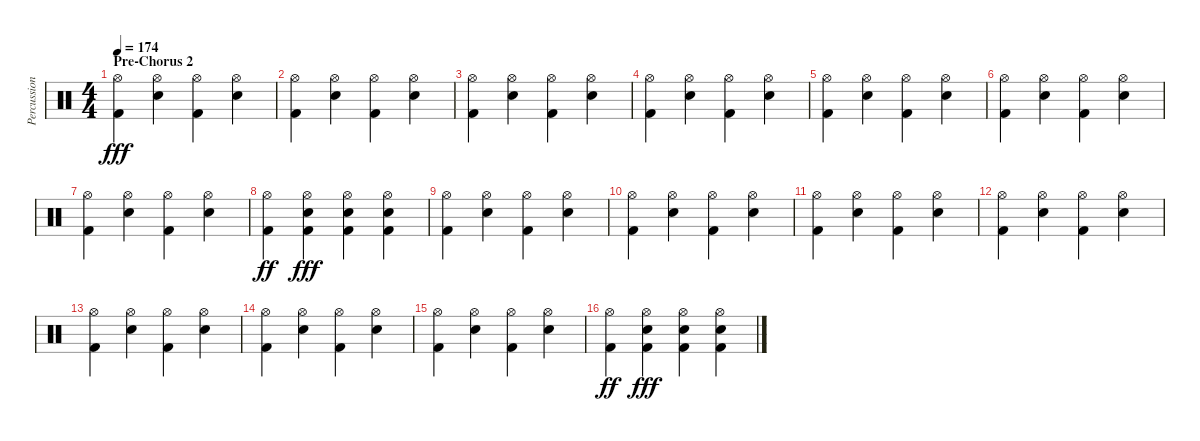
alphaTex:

\track ("Percussion" "Percussion") {instrument percussion}
\staff {score}
\articulation defaults
\ts (4 4)
\section ("" "Pre-Chorus 2")
\tempo 174
\clef neutral
\ks c
("Hi-Hat (open)" "Kick (hit) 2").4{dy fff} ("Hi-Hat (open)" "Electric Snare (hit)").4 ("Hi-Hat (open)" "Kick (hit) 2").4 ("Hi-Hat (open)" "Electric Snare (hit)").4 |
("Hi-Hat (open)" "Kick (hit) 2").4 ("Hi-Hat (open)" "Electric Snare (hit)").4 ("Hi-Hat (open)" "Kick (hit) 2").4 ("Hi-Hat (open)" "Electric Snare (hit)").4 |
("Hi-Hat (open)" "Kick (hit) 2").4 ("Hi-Hat (open)" "Electric Snare (hit)").4 ("Hi-Hat (open)" "Kick (hit) 2").4 ("Hi-Hat (open)" "Electric Snare (hit)").4 |
("Hi-Hat (open)" "Kick (hit) 2").4 ("Hi-Hat (open)" "Electric Snare (hit)").4 ("Hi-Hat (open)" "Kick (hit) 2").4 ("Hi-Hat (open)" "Electric Snare (hit)").4 |
("Hi-Hat (open)" "Kick (hit) 2").4 ("Hi-Hat (open)" "Electric Snare (hit)").4 ("Hi-Hat (open)" "Kick (hit) 2").4 ("Hi-Hat (open)" "Electric Snare (hit)").4 |
("Hi-Hat (open)" "Kick (hit) 2").4 ("Hi-Hat (open)" "Electric Snare (hit)").4 ("Hi-Hat (open)" "Kick (hit) 2").4 ("Hi-Hat (open)" "Electric Snare (hit)").4 |
("Hi-Hat (open)" "Kick (hit) 2").4 ("Hi-Hat (open)" "Electric Snare (hit)").4 ("Hi-Hat (open)" "Kick (hit) 2").4 ("Hi-Hat (open)" "Electric Snare (hit)").4 |
("Hi-Hat (open)" "Kick (hit) 2").4{dy ff} ("Hi-Hat (open)" "Electric Snare (hit)" "Kick (hit) 2").4{dy fff} ("Hi-Hat (open)" "Electric Snare (hit)" "Kick (hit) 2").4 ("Hi-Hat (open)" "Electric Snare (hit)" "Kick (hit) 2").4 |
("Hi-Hat (open)" "Kick (hit) 2").4 ("Hi-Hat (open)" "Electric Snare (hit)").4 ("Hi-Hat (open)" "Kick (hit) 2").4 ("Hi-Hat (open)" "Electric Snare (hit)").4 |
("Hi-Hat (open)" "Kick (hit) 2").4 ("Hi-Hat (open)" "Electric Snare (hit)").4 ("Hi-Hat (open)" "Kick (hit) 2").4 ("Hi-Hat (open)" "Electric Snare (hit)").4 |
("Hi-Hat (open)" "Kick (hit) 2").4 ("Hi-Hat (open)" "Electric Snare (hit)").4 ("Hi-Hat (open)" "Kick (hit) 2").4 ("Hi-Hat (open)" "Electric Snare (hit)").4 |
("Hi-Hat (open)" "Kick (hit) 2").4 ("Hi-Hat (open)" "Electric Snare (hit)").4 ("Hi-Hat (open)" "Kick (hit) 2").4 ("Hi-Hat (open)" "Electric Snare (hit)").4 |
("Hi-Hat (open)" "Kick (hit) 2").4 ("Hi-Hat (open)" "Electric Snare (hit)").4 ("Hi-Hat (open)" "Kick (hit) 2").4 ("Hi-Hat (open)" "Electric Snare (hit)").4 |
("Hi-Hat (open)" "Kick (hit) 2").4 ("Hi-Hat (open)" "Electric Snare (hit)").4 ("Hi-Hat (open)" "Kick (hit) 2").4 ("Hi-Hat (open)" "Electric Snare (hit)").4 |
("Hi-Hat (open)" "Kick (hit) 2").4 ("Hi-Hat (open)" "Electric Snare (hit)").4 ("Hi-Hat (open)" "Kick (hit) 2").4 ("Hi-Hat (open)" "Electric Snare (hit)").4 |
("Hi-Hat (open)" "Kick (hit) 2").4{dy ff} ("Hi-Hat (open)" "Electric Snare (hit)" "Kick (hit) 2").4{dy fff} ("Hi-Hat (open)" "Electric Snare (hit)" "Kick (hit) 2").4 ("Hi-Hat (open)" "Electric Snare (hit)" "Kick (hit) 2").4
